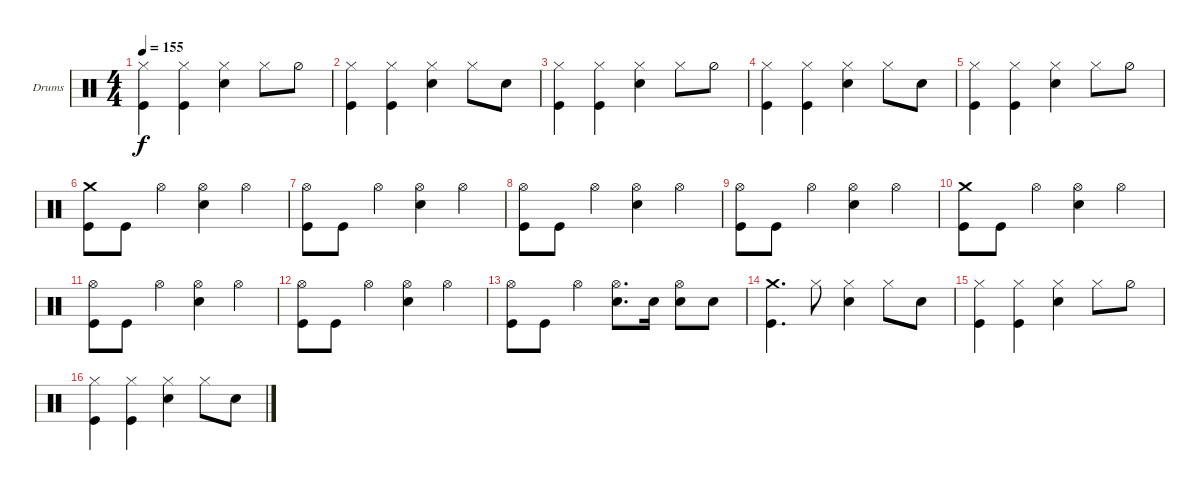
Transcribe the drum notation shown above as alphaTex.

\defaultSystemsLayout 4
\bracketExtendMode groupsimilarinstruments
\firstSystemTrackNameOrientation horizontal
\otherSystemsTrackNameOrientation horizontal
\track ("Drumkit" "Drums") {instrument percussion}
\staff {score}
\articulation defaults
\ts (4 4)
\tempo 155
\clef neutral
\ks c
("Hi-Hat (closed)" "Kick (hit)").4{dy f} ("Hi-Hat (closed)" "Kick (hit)").4 ("Hi-Hat (closed)" "Snare (hit) 2").4 "Hi-Hat (closed)".8 "Hi-Hat (half)".8 |
("Hi-Hat (closed)" "Kick (hit)").4 ("Hi-Hat (closed)" "Kick (hit)").4 ("Hi-Hat (closed)" "Snare (hit) 2").4 "Hi-Hat (closed)".8 "Snare (hit) 2".8 |
("Hi-Hat (closed)" "Kick (hit)").4 ("Hi-Hat (closed)" "Kick (hit)").4 ("Hi-Hat (closed)" "Snare (hit) 2").4 "Hi-Hat (closed)".8 "Hi-Hat (half)".8 |
("Hi-Hat (closed)" "Kick (hit)").4 ("Hi-Hat (closed)" "Kick (hit)").4 ("Hi-Hat (closed)" "Snare (hit) 2").4 "Hi-Hat (closed)".8 "Snare (hit) 2".8 |
("Hi-Hat (closed)" "Kick (hit)").4 ("Hi-Hat (closed)" "Kick (hit)").4 ("Hi-Hat (closed)" "Snare (hit) 2").4 "Hi-Hat (closed)".8 "Hi-Hat (half)".8 |
("Crash medium (hit)" "Kick (hit)").8 "Kick (hit)".8 "Hi-Hat (open)".4 ("Snare (hit) 2" "Hi-Hat (open)").4 "Hi-Hat (open)".4 |
("Kick (hit)" "Hi-Hat (open)").8 "Kick (hit)".8 "Hi-Hat (open)".4 ("Hi-Hat (open)" "Snare (hit) 2").4 "Hi-Hat (open)".4 |
("Kick (hit)" "Hi-Hat (open)").8 "Kick (hit)".8 "Hi-Hat (open)".4 ("Hi-Hat (open)" "Snare (hit) 2").4 "Hi-Hat (open)".4 |
("Kick (hit)" "Hi-Hat (open)").8 "Kick (hit)".8 "Hi-Hat (open)".4 ("Hi-Hat (open)" "Snare (hit) 2").4 "Hi-Hat (open)".4 |
("Crash medium (hit)" "Kick (hit)").8 "Kick (hit)".8 "Hi-Hat (open)".4 ("Snare (hit) 2" "Hi-Hat (open)").4 "Hi-Hat (open)".4 |
("Kick (hit)" "Hi-Hat (open)").8 "Kick (hit)".8 "Hi-Hat (open)".4 ("Hi-Hat (open)" "Snare (hit) 2").4 "Hi-Hat (open)".4 |
("Kick (hit)" "Hi-Hat (open)").8 "Kick (hit)".8 "Hi-Hat (open)".4 ("Hi-Hat (open)" "Snare (hit) 2").4 "Hi-Hat (open)".4 |
("Kick (hit)" "Hi-Hat (open)").8 "Kick (hit)".8 "Hi-Hat (open)".4 ("Hi-Hat (open)" "Snare (hit) 2").8{d} "Snare (hit) 2".16 ("Hi-Hat (open)" "Snare (hit) 2").8 "Snare (hit) 2".8 |
("Kick (hit)" "Crash medium (hit)").4{d} "Hi-Hat (closed)".8 ("Hi-Hat (closed)" "Snare (hit) 2").4 "Hi-Hat (closed)".8 "Snare (hit) 2".8 |
("Kick (hit)" "Hi-Hat (closed)").4 ("Kick (hit)" "Hi-Hat (closed)").4 ("Snare (hit) 2" "Hi-Hat (closed)").4 "Hi-Hat (closed)".8 "Hi-Hat (half)".8 |
("Hi-Hat (closed)" "Kick (hit)").4 ("Hi-Hat (closed)" "Kick (hit)").4 ("Hi-Hat (closed)" "Snare (hit) 2").4 "Hi-Hat (closed)".8 "Snare (hit) 2".8
